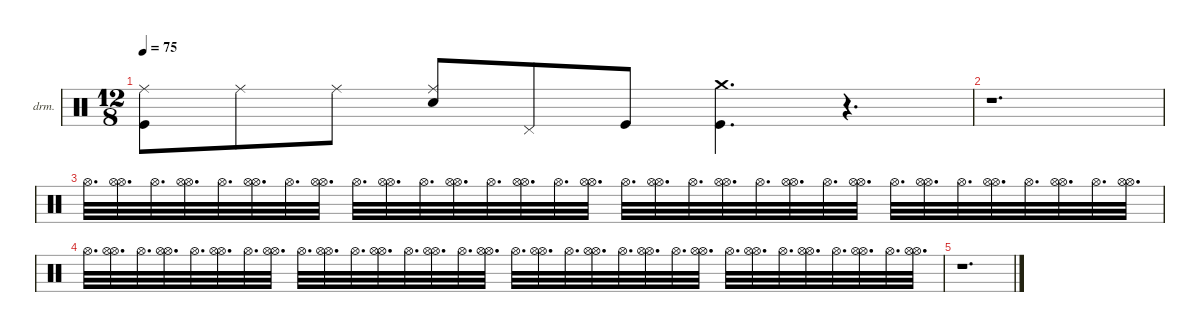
\defaultSystemsLayout 4
\hideDynamics
\bracketExtendMode nobrackets
\firstSystemTrackNameOrientation horizontal
\otherSystemsTrackNameOrientation horizontal
\track ("Drums" "drm.") {instrument percussion}
\staff {score}
\articulation defaults
\ts (12 8)
\tempo 75
\clef neutral
\ks c
("Ride (middle)" "Kick (hit)").8{dy mp beam Down} "Ride (middle)".8{dy p beam Down} "Ride (middle)".8{dy mp beam Down} ("Ride (middle)" "Snare (hit) 2").8{dy mf beam Up} "Pedal Hi-Hat (hit)".8{beam Up} "Kick (hit)".8{dy f beam Up} ("Crash medium (hit)" "Kick (hit)").4{d beam Down} r.4{d beam Down} |
r.1{d beam Down} |
"Hi-Hat (open)".32{d dy pp beam Down} ("Hi-Hat (open)" "Hi-Hat (open)").32{d beam Down} "Hi-Hat (open)".32{d beam Down} ("Hi-Hat (open)" "Hi-Hat (open)").32{d beam Down} "Hi-Hat (open)".32{d beam Down} ("Hi-Hat (open)" "Hi-Hat (open)").32{d beam Down} "Hi-Hat (open)".32{d beam Down} ("Hi-Hat (open)" "Hi-Hat (open)").32{d beam Down} "Hi-Hat (open)".32{d beam Down} ("Hi-Hat (open)" "Hi-Hat (open)").32{d beam Down} "Hi-Hat (open)".32{d beam Down} ("Hi-Hat (open)" "Hi-Hat (open)").32{d beam Down} "Hi-Hat (open)".32{d beam Down} ("Hi-Hat (open)" "Hi-Hat (open)").32{d beam Down} "Hi-Hat (open)".32{d beam Down} ("Hi-Hat (open)" "Hi-Hat (open)").32{d beam Down} "Hi-Hat (open)".32{d beam Down} ("Hi-Hat (open)" "Hi-Hat (open)").32{d beam Down} "Hi-Hat (open)".32{d beam Down} ("Hi-Hat (open)" "Hi-Hat (open)").32{d beam Down} "Hi-Hat (open)".32{d beam Down} ("Hi-Hat (open)" "Hi-Hat (open)").32{d beam Down} "Hi-Hat (open)".32{d beam Down} ("Hi-Hat (open)" "Hi-Hat (open)").32{d beam Down} "Hi-Hat (open)".32{d beam Down} ("Hi-Hat (open)" "Hi-Hat (open)").32{d beam Down} "Hi-Hat (open)".32{d beam Down} ("Hi-Hat (open)" "Hi-Hat (open)").32{d beam Down} "Hi-Hat (open)".32{d beam Down} ("Hi-Hat (open)" "Hi-Hat (open)").32{d beam Down} "Hi-Hat (open)".32{d beam Down} ("Hi-Hat (open)" "Hi-Hat (open)").32{d beam Down} |
"Hi-Hat (open)".32{d beam Down} ("Hi-Hat (open)" "Hi-Hat (open)").32{d beam Down} "Hi-Hat (open)".32{d beam Down} ("Hi-Hat (open)" "Hi-Hat (open)").32{d beam Down} "Hi-Hat (open)".32{d beam Down} ("Hi-Hat (open)" "Hi-Hat (open)").32{d beam Down} "Hi-Hat (open)".32{d beam Down} ("Hi-Hat (open)" "Hi-Hat (open)").32{d beam Down} "Hi-Hat (open)".32{d beam Down} ("Hi-Hat (open)" "Hi-Hat (open)").32{d beam Down} "Hi-Hat (open)".32{d beam Down} ("Hi-Hat (open)" "Hi-Hat (open)").32{d beam Down} "Hi-Hat (open)".32{d beam Down} ("Hi-Hat (open)" "Hi-Hat (open)").32{d beam Down} "Hi-Hat (open)".32{d beam Down} ("Hi-Hat (open)" "Hi-Hat (open)").32{d beam Down} "Hi-Hat (open)".32{d beam Down} ("Hi-Hat (open)" "Hi-Hat (open)").32{d beam Down} "Hi-Hat (open)".32{d beam Down} ("Hi-Hat (open)" "Hi-Hat (open)").32{d beam Down} "Hi-Hat (open)".32{d beam Down} ("Hi-Hat (open)" "Hi-Hat (open)").32{d beam Down} "Hi-Hat (open)".32{d beam Down} ("Hi-Hat (open)" "Hi-Hat (open)").32{d beam Down} "Hi-Hat (open)".32{d beam Down} ("Hi-Hat (open)" "Hi-Hat (open)").32{d beam Down} "Hi-Hat (open)".32{d beam Down} ("Hi-Hat (open)" "Hi-Hat (open)").32{d beam Down} "Hi-Hat (open)".32{d beam Down} ("Hi-Hat (open)" "Hi-Hat (open)").32{d beam Down} "Hi-Hat (open)".32{d beam Down} ("Hi-Hat (open)" "Hi-Hat (open)").32{d beam Down} |
r.1{d beam Down}
